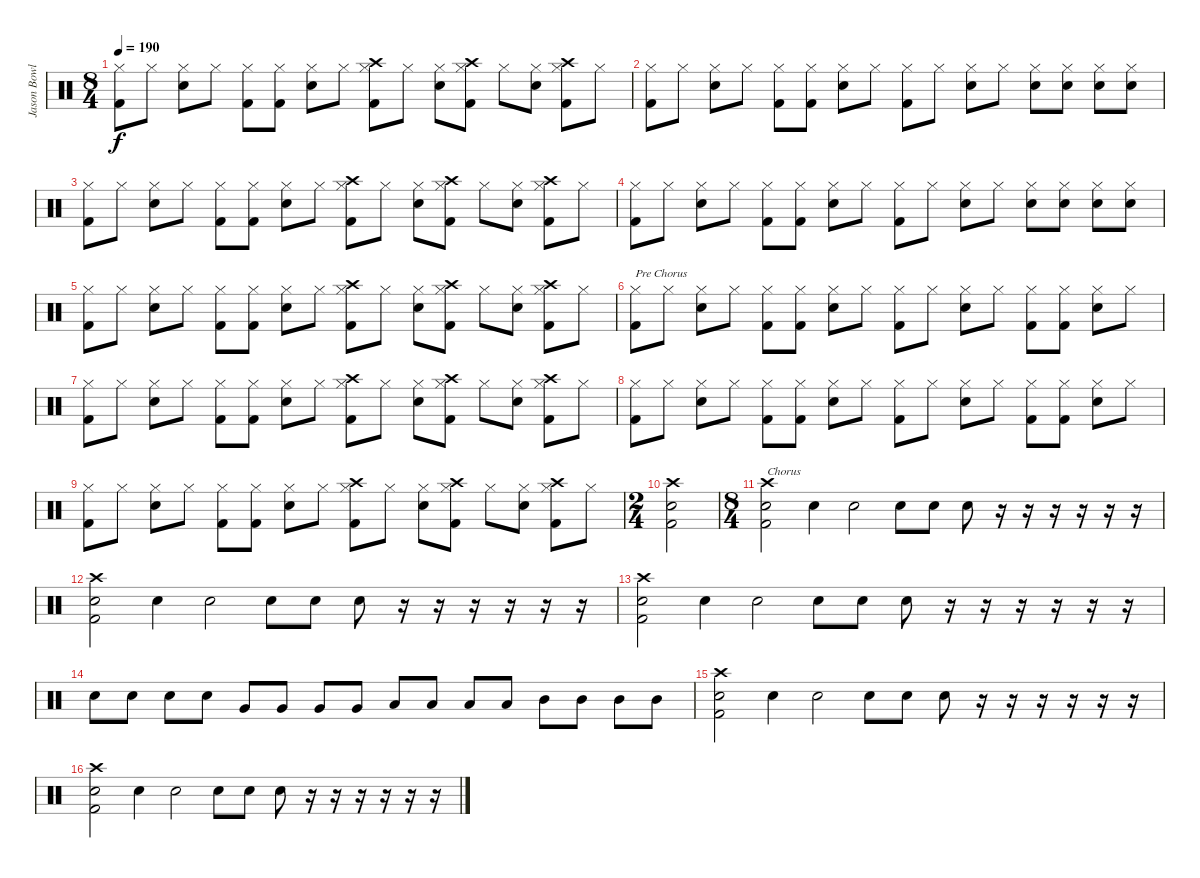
\track ("Jason Bowld" "Jason Bowl") {instrument percussion}
\staff {score}
\articulation defaults
\ts (8 4)
\tempo 190
\clef neutral
\ks c
("Hi-Hat (closed)" "Kick (hit) 2").8{dy f} "Hi-Hat (closed)".8 ("Hi-Hat (closed)" "Snare (hit) 2").8 "Hi-Hat (closed)".8 ("Hi-Hat (closed)" "Kick (hit) 2").8 ("Hi-Hat (closed)" "Kick (hit) 2").8 ("Hi-Hat (closed)" "Snare (hit) 2").8 "Hi-Hat (closed)".8 ("Hi-Hat (closed)" "Kick (hit) 2" "Crash high (hit)").8 "Hi-Hat (closed)".8 ("Hi-Hat (closed)" "Snare (hit) 2").8 ("Hi-Hat (closed)" "Kick (hit) 2" "Crash high (hit)").8 "Hi-Hat (closed)".8 ("Hi-Hat (closed)" "Snare (hit) 2").8 ("Hi-Hat (closed)" "Kick (hit) 2" "Crash high (hit)").8 "Hi-Hat (closed)".8 |
("Hi-Hat (closed)" "Kick (hit) 2").8 "Hi-Hat (closed)".8 ("Hi-Hat (closed)" "Snare (hit) 2").8 "Hi-Hat (closed)".8 ("Hi-Hat (closed)" "Kick (hit) 2").8 ("Hi-Hat (closed)" "Kick (hit) 2").8 ("Hi-Hat (closed)" "Snare (hit) 2").8 "Hi-Hat (closed)".8 ("Hi-Hat (closed)" "Kick (hit) 2").8 "Hi-Hat (closed)".8 ("Hi-Hat (closed)" "Snare (hit) 2").8 "Hi-Hat (closed)".8 ("Hi-Hat (closed)" "Snare (hit) 2").8 ("Hi-Hat (closed)" "Snare (hit) 2").8 ("Hi-Hat (closed)" "Snare (hit) 2").8 ("Hi-Hat (closed)" "Snare (hit) 2").8 |
("Hi-Hat (closed)" "Kick (hit) 2").8 "Hi-Hat (closed)".8 ("Hi-Hat (closed)" "Snare (hit) 2").8 "Hi-Hat (closed)".8 ("Hi-Hat (closed)" "Kick (hit) 2").8 ("Hi-Hat (closed)" "Kick (hit) 2").8 ("Hi-Hat (closed)" "Snare (hit) 2").8 "Hi-Hat (closed)".8 ("Hi-Hat (closed)" "Kick (hit) 2" "Crash high (hit)").8 "Hi-Hat (closed)".8 ("Hi-Hat (closed)" "Snare (hit) 2").8 ("Hi-Hat (closed)" "Kick (hit) 2" "Crash high (hit)").8 "Hi-Hat (closed)".8 ("Hi-Hat (closed)" "Snare (hit) 2").8 ("Hi-Hat (closed)" "Kick (hit) 2" "Crash high (hit)").8 "Hi-Hat (closed)".8 |
("Hi-Hat (closed)" "Kick (hit) 2").8 "Hi-Hat (closed)".8 ("Hi-Hat (closed)" "Snare (hit) 2").8 "Hi-Hat (closed)".8 ("Hi-Hat (closed)" "Kick (hit) 2").8 ("Hi-Hat (closed)" "Kick (hit) 2").8 ("Hi-Hat (closed)" "Snare (hit) 2").8 "Hi-Hat (closed)".8 ("Hi-Hat (closed)" "Kick (hit) 2").8 "Hi-Hat (closed)".8 ("Hi-Hat (closed)" "Snare (hit) 2").8 "Hi-Hat (closed)".8 ("Hi-Hat (closed)" "Snare (hit) 2").8 ("Hi-Hat (closed)" "Snare (hit) 2").8 ("Hi-Hat (closed)" "Snare (hit) 2").8 ("Hi-Hat (closed)" "Snare (hit) 2").8 |
("Hi-Hat (closed)" "Kick (hit) 2").8 "Hi-Hat (closed)".8 ("Hi-Hat (closed)" "Snare (hit) 2").8 "Hi-Hat (closed)".8 ("Hi-Hat (closed)" "Kick (hit) 2").8 ("Hi-Hat (closed)" "Kick (hit) 2").8 ("Hi-Hat (closed)" "Snare (hit) 2").8 "Hi-Hat (closed)".8 ("Hi-Hat (closed)" "Kick (hit) 2" "Crash high (hit)").8 "Hi-Hat (closed)".8 ("Hi-Hat (closed)" "Snare (hit) 2").8 ("Hi-Hat (closed)" "Kick (hit) 2" "Crash high (hit)").8 "Hi-Hat (closed)".8 ("Hi-Hat (closed)" "Snare (hit) 2").8 ("Hi-Hat (closed)" "Kick (hit) 2" "Crash high (hit)").8 "Hi-Hat (closed)".8 |
("Hi-Hat (closed)" "Kick (hit) 2").8{txt "Pre Chorus"} "Hi-Hat (closed)".8 ("Hi-Hat (closed)" "Snare (hit) 2").8 "Hi-Hat (closed)".8 ("Hi-Hat (closed)" "Kick (hit) 2").8 ("Hi-Hat (closed)" "Kick (hit) 2").8 ("Hi-Hat (closed)" "Snare (hit) 2").8 "Hi-Hat (closed)".8 ("Hi-Hat (closed)" "Kick (hit) 2").8 "Hi-Hat (closed)".8 ("Hi-Hat (closed)" "Snare (hit) 2").8 "Hi-Hat (closed)".8 ("Hi-Hat (closed)" "Kick (hit) 2").8 ("Hi-Hat (closed)" "Kick (hit) 2").8 ("Hi-Hat (closed)" "Snare (hit) 2").8 "Hi-Hat (closed)".8 |
("Hi-Hat (closed)" "Kick (hit) 2").8 "Hi-Hat (closed)".8 ("Hi-Hat (closed)" "Snare (hit) 2").8 "Hi-Hat (closed)".8 ("Hi-Hat (closed)" "Kick (hit) 2").8 ("Hi-Hat (closed)" "Kick (hit) 2").8 ("Hi-Hat (closed)" "Snare (hit) 2").8 "Hi-Hat (closed)".8 ("Hi-Hat (closed)" "Kick (hit) 2" "Crash high (hit)").8 "Hi-Hat (closed)".8 ("Hi-Hat (closed)" "Snare (hit) 2").8 ("Hi-Hat (closed)" "Kick (hit) 2" "Crash high (hit)").8 "Hi-Hat (closed)".8 ("Hi-Hat (closed)" "Snare (hit) 2").8 ("Hi-Hat (closed)" "Kick (hit) 2" "Crash high (hit)").8 "Hi-Hat (closed)".8 |
("Hi-Hat (closed)" "Kick (hit) 2").8 "Hi-Hat (closed)".8 ("Hi-Hat (closed)" "Snare (hit) 2").8 "Hi-Hat (closed)".8 ("Hi-Hat (closed)" "Kick (hit) 2").8 ("Hi-Hat (closed)" "Kick (hit) 2").8 ("Hi-Hat (closed)" "Snare (hit) 2").8 "Hi-Hat (closed)".8 ("Hi-Hat (closed)" "Kick (hit) 2").8 "Hi-Hat (closed)".8 ("Hi-Hat (closed)" "Snare (hit) 2").8 "Hi-Hat (closed)".8 ("Hi-Hat (closed)" "Kick (hit) 2").8 ("Hi-Hat (closed)" "Kick (hit) 2").8 ("Hi-Hat (closed)" "Snare (hit) 2").8 "Hi-Hat (closed)".8 |
("Hi-Hat (closed)" "Kick (hit) 2").8 "Hi-Hat (closed)".8 ("Hi-Hat (closed)" "Snare (hit) 2").8 "Hi-Hat (closed)".8 ("Hi-Hat (closed)" "Kick (hit) 2").8 ("Hi-Hat (closed)" "Kick (hit) 2").8 ("Hi-Hat (closed)" "Snare (hit) 2").8 "Hi-Hat (closed)".8 ("Hi-Hat (closed)" "Kick (hit) 2" "Crash high (hit)").8 "Hi-Hat (closed)".8 ("Hi-Hat (closed)" "Snare (hit) 2").8 ("Hi-Hat (closed)" "Kick (hit) 2" "Crash high (hit)").8 "Hi-Hat (closed)".8 ("Hi-Hat (closed)" "Snare (hit) 2").8 ("Hi-Hat (closed)" "Kick (hit) 2" "Crash high (hit)").8 "Hi-Hat (closed)".8 |
\ts (2 4)
("Kick (hit) 2" "Snare (hit) 2" "Crash high (hit)").2 |
\ts (8 4)
("Kick (hit) 2" "Snare (hit) 2" "Crash high (hit)").2{txt "Chorus"} "Snare (hit) 2".4 "Snare (hit) 2".2 "Snare (hit) 2".8 "Snare (hit) 2".8 "Snare (hit) 2".8 r.16 r.16 r.16 r.16 r.16 r.16 |
("Kick (hit) 2" "Snare (hit) 2" "Crash high (hit)").2 "Snare (hit) 2".4 "Snare (hit) 2".2 "Snare (hit) 2".8 "Snare (hit) 2".8 "Snare (hit) 2".8 r.16 r.16 r.16 r.16 r.16 r.16 |
("Kick (hit) 2" "Snare (hit) 2" "Crash high (hit)").2 "Snare (hit) 2".4 "Snare (hit) 2".2 "Snare (hit) 2".8 "Snare (hit) 2".8 "Snare (hit) 2".8 r.16 r.16 r.16 r.16 r.16 r.16 |
"Snare (hit) 2".8 "Snare (hit) 2".8 "Snare (hit) 2".8 "Snare (hit) 2".8 "Very Low Tom (hit)".8 "Very Low Tom (hit)".8 "Very Low Tom (hit)".8 "Very Low Tom (hit)".8 "Low Tom (hit)".8 "Low Tom (hit)".8 "Low Tom (hit)".8 "Low Tom (hit)".8 "Mid Tom (hit)".8 "Mid Tom (hit)".8 "Mid Tom (hit)".8 "Mid Tom (hit)".8 |
("Kick (hit) 2" "Snare (hit) 2" "Crash high (hit)").2 "Snare (hit) 2".4 "Snare (hit) 2".2 "Snare (hit) 2".8 "Snare (hit) 2".8 "Snare (hit) 2".8 r.16 r.16 r.16 r.16 r.16 r.16 |
("Kick (hit) 2" "Snare (hit) 2" "Crash high (hit)").2 "Snare (hit) 2".4 "Snare (hit) 2".2 "Snare (hit) 2".8 "Snare (hit) 2".8 "Snare (hit) 2".8 r.16 r.16 r.16 r.16 r.16 r.16
